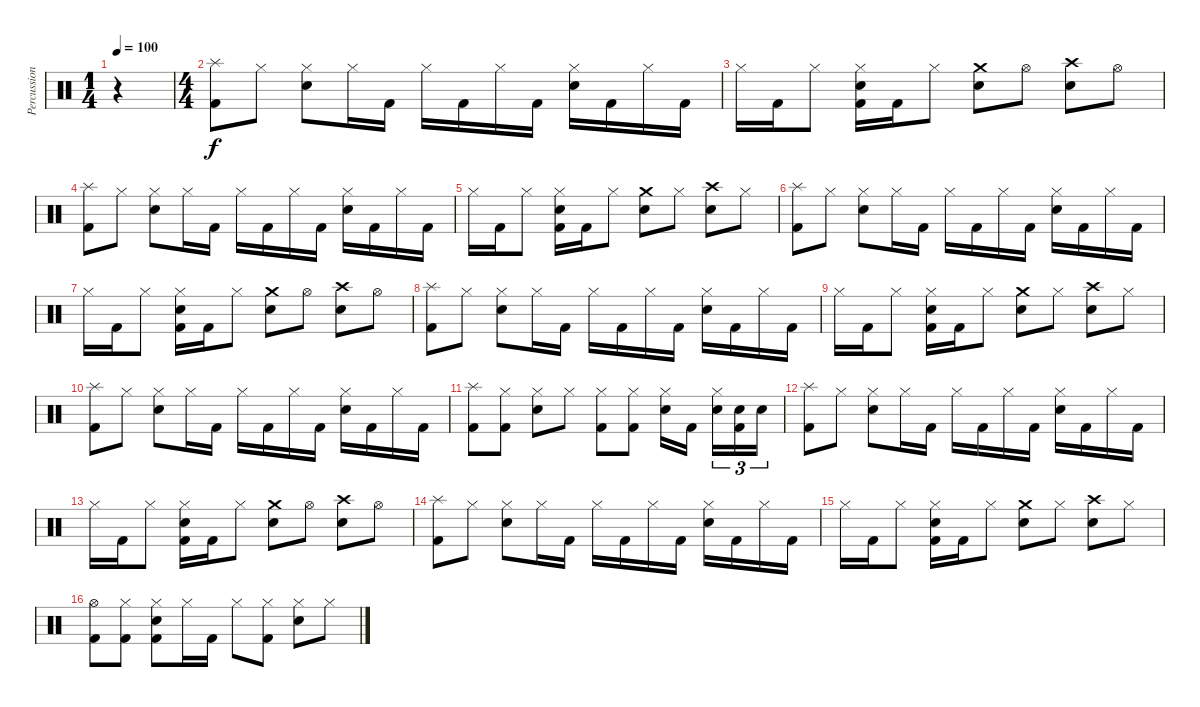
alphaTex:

\track ("Percussions" "Percussion") {instrument percussion}
\staff {score}
\articulation defaults
\ts (1 4)
\tempo 100
\clef neutral
\ks c
r.4{dy f} |
\ts (4 4)
("Splash (hit)" "Kick (hit) 2").8 "Hi-Hat (closed)".8 ("Hi-Hat (closed)" "Snare (hit) 2").8 "Hi-Hat (closed)".16 "Kick (hit) 2".16 "Hi-Hat (closed)".16 "Kick (hit) 2".16 "Hi-Hat (closed)".16 "Kick (hit) 2".16 ("Hi-Hat (closed)" "Snare (hit) 2").16 "Kick (hit) 2".16 "Hi-Hat (closed)".16 "Kick (hit) 2".16 |
"Hi-Hat (closed)".16 "Kick (hit) 2".16 "Hi-Hat (closed)".8 ("Hi-Hat (closed)" "Snare (hit) 2" "Kick (hit) 2").16 "Kick (hit) 2".16 "Hi-Hat (closed)".8 ("Crash medium (hit)" "Electric Snare (hit)").8 "Hi-Hat (open)".8 ("Crash high (hit)" "Snare (hit) 2").8 "Hi-Hat (open)".8 |
("Splash (hit)" "Kick (hit) 2").8 "Hi-Hat (closed)".8 ("Hi-Hat (closed)" "Snare (hit) 2").8 "Hi-Hat (closed)".16 "Kick (hit) 2".16 "Hi-Hat (closed)".16 "Kick (hit) 2".16 "Hi-Hat (closed)".16 "Kick (hit) 2".16 ("Hi-Hat (closed)" "Snare (hit) 2").16 "Kick (hit) 2".16 "Hi-Hat (closed)".16 "Kick (hit) 2".16 |
"Hi-Hat (closed)".16 "Kick (hit) 2".16 "Hi-Hat (closed)".8 ("Hi-Hat (closed)" "Snare (hit) 2" "Kick (hit) 2").16 "Kick (hit) 2".16 "Hi-Hat (closed)".8 ("Crash medium (hit)" "Electric Snare (hit)").8 "Hi-Hat (closed)".8 ("Crash high (hit)" "Snare (hit) 2").8 "Hi-Hat (closed)".8 |
("Splash (hit)" "Kick (hit) 2").8 "Hi-Hat (closed)".8 ("Hi-Hat (closed)" "Snare (hit) 2").8 "Hi-Hat (closed)".16 "Kick (hit) 2".16 "Hi-Hat (closed)".16 "Kick (hit) 2".16 "Hi-Hat (closed)".16 "Kick (hit) 2".16 ("Hi-Hat (closed)" "Snare (hit) 2").16 "Kick (hit) 2".16 "Hi-Hat (closed)".16 "Kick (hit) 2".16 |
"Hi-Hat (closed)".16 "Kick (hit) 2".16 "Hi-Hat (closed)".8 ("Hi-Hat (closed)" "Snare (hit) 2" "Kick (hit) 2").16 "Kick (hit) 2".16 "Hi-Hat (closed)".8 ("Crash medium (hit)" "Electric Snare (hit)").8 "Hi-Hat (open)".8 ("Crash high (hit)" "Snare (hit) 2").8 "Hi-Hat (open)".8 |
("Splash (hit)" "Kick (hit) 2").8 "Hi-Hat (closed)".8 ("Hi-Hat (closed)" "Snare (hit) 2").8 "Hi-Hat (closed)".16 "Kick (hit) 2".16 "Hi-Hat (closed)".16 "Kick (hit) 2".16 "Hi-Hat (closed)".16 "Kick (hit) 2".16 ("Hi-Hat (closed)" "Snare (hit) 2").16 "Kick (hit) 2".16 "Hi-Hat (closed)".16 "Kick (hit) 2".16 |
"Hi-Hat (closed)".16 "Kick (hit) 2".16 "Hi-Hat (closed)".8 ("Hi-Hat (closed)" "Snare (hit) 2" "Kick (hit) 2").16 "Kick (hit) 2".16 "Hi-Hat (closed)".8 ("Crash medium (hit)" "Electric Snare (hit)").8 "Hi-Hat (closed)".8 ("Crash high (hit)" "Snare (hit) 2").8 "Hi-Hat (closed)".8 |
("Splash (hit)" "Kick (hit) 2").8 "Hi-Hat (closed)".8 ("Hi-Hat (closed)" "Snare (hit) 2").8 "Hi-Hat (closed)".16 "Kick (hit) 2".16 "Hi-Hat (closed)".16 "Kick (hit) 2".16 "Hi-Hat (closed)".16 "Kick (hit) 2".16 ("Hi-Hat (closed)" "Snare (hit) 2").16 "Kick (hit) 2".16 "Hi-Hat (closed)".16 "Kick (hit) 2".16 |
("Splash (hit)" "Kick (hit) 2").8 ("Hi-Hat (closed)" "Kick (hit) 2").8 ("Hi-Hat (closed)" "Snare (hit) 2").8 "Hi-Hat (closed)".8 ("Hi-Hat (closed)" "Kick (hit) 2").8 ("Hi-Hat (closed)" "Kick (hit) 2").8 ("Hi-Hat (closed)" "Snare (hit) 2").16 "Kick (hit) 2".16 ("Hi-Hat (closed)" "Snare (hit) 2").16{tu (3 2)} ("Snare (hit) 2" "Kick (hit) 2").16{tu (3 2)} "Snare (hit) 2".16{tu (3 2)} |
("Splash (hit)" "Kick (hit) 2").8 "Hi-Hat (closed)".8 ("Hi-Hat (closed)" "Snare (hit) 2").8 "Hi-Hat (closed)".16 "Kick (hit) 2".16 "Hi-Hat (closed)".16 "Kick (hit) 2".16 "Hi-Hat (closed)".16 "Kick (hit) 2".16 ("Hi-Hat (closed)" "Snare (hit) 2").16 "Kick (hit) 2".16 "Hi-Hat (closed)".16 "Kick (hit) 2".16 |
"Hi-Hat (closed)".16 "Kick (hit) 2".16 "Hi-Hat (closed)".8 ("Hi-Hat (closed)" "Snare (hit) 2" "Kick (hit) 2").16 "Kick (hit) 2".16 "Hi-Hat (closed)".8 ("Crash medium (hit)" "Electric Snare (hit)").8 "Hi-Hat (open)".8 ("Crash high (hit)" "Snare (hit) 2").8 "Hi-Hat (open)".8 |
("Splash (hit)" "Kick (hit) 2").8 "Hi-Hat (closed)".8 ("Hi-Hat (closed)" "Snare (hit) 2").8 "Hi-Hat (closed)".16 "Kick (hit) 2".16 "Hi-Hat (closed)".16 "Kick (hit) 2".16 "Hi-Hat (closed)".16 "Kick (hit) 2".16 ("Hi-Hat (closed)" "Snare (hit) 2").16 "Kick (hit) 2".16 "Hi-Hat (closed)".16 "Kick (hit) 2".16 |
"Hi-Hat (closed)".16 "Kick (hit) 2".16 "Hi-Hat (closed)".8 ("Hi-Hat (closed)" "Snare (hit) 2" "Kick (hit) 2").16 "Kick (hit) 2".16 "Hi-Hat (closed)".8 ("Crash medium (hit)" "Electric Snare (hit)").8 "Hi-Hat (closed)".8 ("Crash high (hit)" "Snare (hit) 2").8 "Hi-Hat (closed)".8 |
("Hi-Hat (open)" "Kick (hit) 2").8 ("Hi-Hat (closed)" "Kick (hit) 2").8 ("Hi-Hat (closed)" "Snare (hit) 2" "Kick (hit) 2").8 "Hi-Hat (closed)".16 "Kick (hit) 2".16 "Hi-Hat (closed)".8 ("Hi-Hat (closed)" "Kick (hit) 2").8 ("Hi-Hat (closed)" "Snare (hit) 2").8 "Hi-Hat (closed)".8
